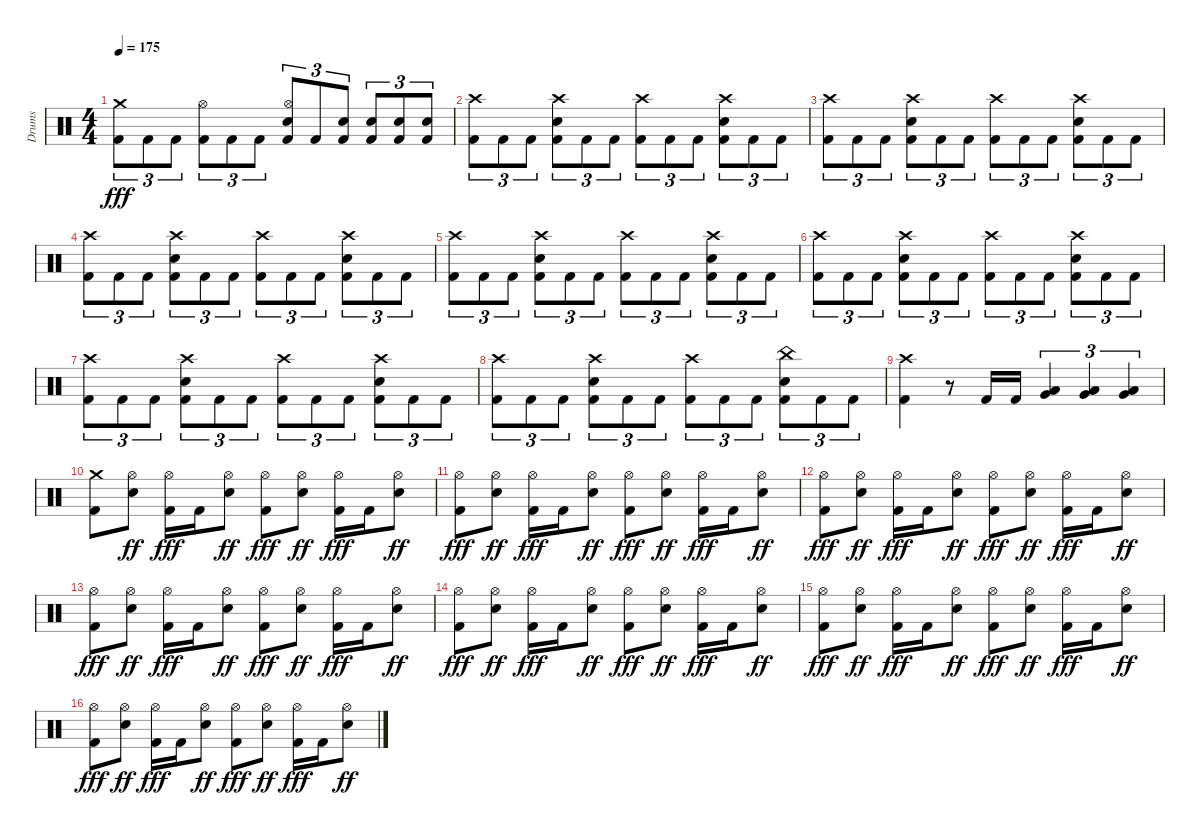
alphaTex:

\track ("Drums" "Drums") {instrument percussion}
\staff {score}
\articulation defaults
\ts (4 4)
\tempo 175
\clef neutral
\ks c
("Crash medium (hit)" "Kick (hit) 2").8{tu (3 2) dy fff} "Kick (hit) 2".8{tu (3 2)} "Kick (hit) 2".8{tu (3 2)} ("Hi-Hat (open)" "Kick (hit) 2").8{tu (3 2)} "Kick (hit) 2".8{tu (3 2)} "Kick (hit) 2".8{tu (3 2)} ("Hi-Hat (open)" "Snare (hit) 2" "Kick (hit) 2").8{tu (3 2)} "Kick (hit) 2".8{tu (3 2)} ("Snare (hit) 2" "Kick (hit) 2").8{tu (3 2)} ("Snare (hit) 2" "Kick (hit) 2").8{tu (3 2)} ("Snare (hit) 2" "Kick (hit) 2").8{tu (3 2)} ("Snare (hit) 2" "Kick (hit) 2").8{tu (3 2)} |
("Crash high (hit)" "Kick (hit) 2").8{tu (3 2)} "Kick (hit) 2".8{tu (3 2)} "Kick (hit) 2".8{tu (3 2)} ("Crash high (hit)" "Snare (hit) 2" "Kick (hit) 2").8{tu (3 2)} "Kick (hit) 2".8{tu (3 2)} "Kick (hit) 2".8{tu (3 2)} ("Crash high (hit)" "Kick (hit) 2").8{tu (3 2)} "Kick (hit) 2".8{tu (3 2)} "Kick (hit) 2".8{tu (3 2)} ("Crash high (hit)" "Snare (hit) 2" "Kick (hit) 2").8{tu (3 2)} "Kick (hit) 2".8{tu (3 2)} "Kick (hit) 2".8{tu (3 2)} |
("Crash high (hit)" "Kick (hit) 2").8{tu (3 2)} "Kick (hit) 2".8{tu (3 2)} "Kick (hit) 2".8{tu (3 2)} ("Crash high (hit)" "Snare (hit) 2" "Kick (hit) 2").8{tu (3 2)} "Kick (hit) 2".8{tu (3 2)} "Kick (hit) 2".8{tu (3 2)} ("Crash high (hit)" "Kick (hit) 2").8{tu (3 2)} "Kick (hit) 2".8{tu (3 2)} "Kick (hit) 2".8{tu (3 2)} ("Crash high (hit)" "Snare (hit) 2" "Kick (hit) 2").8{tu (3 2)} "Kick (hit) 2".8{tu (3 2)} "Kick (hit) 2".8{tu (3 2)} |
("Crash high (hit)" "Kick (hit) 2").8{tu (3 2)} "Kick (hit) 2".8{tu (3 2)} "Kick (hit) 2".8{tu (3 2)} ("Crash high (hit)" "Snare (hit) 2" "Kick (hit) 2").8{tu (3 2)} "Kick (hit) 2".8{tu (3 2)} "Kick (hit) 2".8{tu (3 2)} ("Crash high (hit)" "Kick (hit) 2").8{tu (3 2)} "Kick (hit) 2".8{tu (3 2)} "Kick (hit) 2".8{tu (3 2)} ("Crash high (hit)" "Snare (hit) 2" "Kick (hit) 2").8{tu (3 2)} "Kick (hit) 2".8{tu (3 2)} "Kick (hit) 2".8{tu (3 2)} |
("Crash high (hit)" "Kick (hit) 2").8{tu (3 2)} "Kick (hit) 2".8{tu (3 2)} "Kick (hit) 2".8{tu (3 2)} ("Crash high (hit)" "Snare (hit) 2" "Kick (hit) 2").8{tu (3 2)} "Kick (hit) 2".8{tu (3 2)} "Kick (hit) 2".8{tu (3 2)} ("Crash high (hit)" "Kick (hit) 2").8{tu (3 2)} "Kick (hit) 2".8{tu (3 2)} "Kick (hit) 2".8{tu (3 2)} ("Crash high (hit)" "Snare (hit) 2" "Kick (hit) 2").8{tu (3 2)} "Kick (hit) 2".8{tu (3 2)} "Kick (hit) 2".8{tu (3 2)} |
("Crash high (hit)" "Kick (hit) 2").8{tu (3 2)} "Kick (hit) 2".8{tu (3 2)} "Kick (hit) 2".8{tu (3 2)} ("Crash high (hit)" "Snare (hit) 2" "Kick (hit) 2").8{tu (3 2)} "Kick (hit) 2".8{tu (3 2)} "Kick (hit) 2".8{tu (3 2)} ("Crash high (hit)" "Kick (hit) 2").8{tu (3 2)} "Kick (hit) 2".8{tu (3 2)} "Kick (hit) 2".8{tu (3 2)} ("Crash high (hit)" "Snare (hit) 2" "Kick (hit) 2").8{tu (3 2)} "Kick (hit) 2".8{tu (3 2)} "Kick (hit) 2".8{tu (3 2)} |
("Crash high (hit)" "Kick (hit) 2").8{tu (3 2)} "Kick (hit) 2".8{tu (3 2)} "Kick (hit) 2".8{tu (3 2)} ("Crash high (hit)" "Snare (hit) 2" "Kick (hit) 2").8{tu (3 2)} "Kick (hit) 2".8{tu (3 2)} "Kick (hit) 2".8{tu (3 2)} ("Crash high (hit)" "Kick (hit) 2").8{tu (3 2)} "Kick (hit) 2".8{tu (3 2)} "Kick (hit) 2".8{tu (3 2)} ("Crash high (hit)" "Snare (hit) 2" "Kick (hit) 2").8{tu (3 2)} "Kick (hit) 2".8{tu (3 2)} "Kick (hit) 2".8{tu (3 2)} |
("Crash high (hit)" "Kick (hit) 2").8{tu (3 2)} "Kick (hit) 2".8{tu (3 2)} "Kick (hit) 2".8{tu (3 2)} ("Crash high (hit)" "Snare (hit) 2" "Kick (hit) 2").8{tu (3 2)} "Kick (hit) 2".8{tu (3 2)} "Kick (hit) 2".8{tu (3 2)} ("Crash high (hit)" "Kick (hit) 2").8{tu (3 2)} "Kick (hit) 2".8{tu (3 2)} "Kick (hit) 2".8{tu (3 2)} ("China (hit)" "Snare (hit) 2" "Kick (hit) 2").8{tu (3 2)} "Kick (hit) 2".8{tu (3 2)} "Kick (hit) 2".8{tu (3 2)} |
("Crash high (hit)" "Kick (hit) 2").4 r.8 "Kick (hit) 2".16 "Kick (hit) 2".16 ("Very Low Tom (hit)" "Low Floor Tom (hit)").4{tu (3 2)} ("Very Low Tom (hit)" "Low Floor Tom (hit)").4{tu (3 2)} ("Very Low Tom (hit)" "Low Floor Tom (hit)").4{tu (3 2)} |
("Crash medium (hit)" "Kick (hit) 2").8 ("Hi-Hat (open)" "Snare (hit) 2").8{dy ff} ("Hi-Hat (open)" "Kick (hit) 2").16{dy fff} "Kick (hit) 2".16 ("Hi-Hat (open)" "Snare (hit) 2").8{dy ff} ("Hi-Hat (open)" "Kick (hit) 2").8{dy fff} ("Hi-Hat (open)" "Snare (hit) 2").8{dy ff} ("Hi-Hat (open)" "Kick (hit) 2").16{dy fff} "Kick (hit) 2".16 ("Hi-Hat (open)" "Snare (hit) 2").8{dy ff} |
("Hi-Hat (open)" "Kick (hit) 2").8{dy fff} ("Hi-Hat (open)" "Snare (hit) 2").8{dy ff} ("Hi-Hat (open)" "Kick (hit) 2").16{dy fff} "Kick (hit) 2".16 ("Hi-Hat (open)" "Snare (hit) 2").8{dy ff} ("Hi-Hat (open)" "Kick (hit) 2").8{dy fff} ("Hi-Hat (open)" "Snare (hit) 2").8{dy ff} ("Hi-Hat (open)" "Kick (hit) 2").16{dy fff} "Kick (hit) 2".16 ("Hi-Hat (open)" "Snare (hit) 2").8{dy ff} |
("Hi-Hat (open)" "Kick (hit) 2").8{dy fff} ("Hi-Hat (open)" "Snare (hit) 2").8{dy ff} ("Hi-Hat (open)" "Kick (hit) 2").16{dy fff} "Kick (hit) 2".16 ("Hi-Hat (open)" "Snare (hit) 2").8{dy ff} ("Hi-Hat (open)" "Kick (hit) 2").8{dy fff} ("Hi-Hat (open)" "Snare (hit) 2").8{dy ff} ("Hi-Hat (open)" "Kick (hit) 2").16{dy fff} "Kick (hit) 2".16 ("Hi-Hat (open)" "Snare (hit) 2").8{dy ff} |
("Hi-Hat (open)" "Kick (hit) 2").8{dy fff} ("Hi-Hat (open)" "Snare (hit) 2").8{dy ff} ("Hi-Hat (open)" "Kick (hit) 2").16{dy fff} "Kick (hit) 2".16 ("Hi-Hat (open)" "Snare (hit) 2").8{dy ff} ("Hi-Hat (open)" "Kick (hit) 2").8{dy fff} ("Hi-Hat (open)" "Snare (hit) 2").8{dy ff} ("Hi-Hat (open)" "Kick (hit) 2").16{dy fff} "Kick (hit) 2".16 ("Hi-Hat (open)" "Snare (hit) 2").8{dy ff} |
("Hi-Hat (open)" "Kick (hit) 2").8{dy fff} ("Hi-Hat (open)" "Snare (hit) 2").8{dy ff} ("Hi-Hat (open)" "Kick (hit) 2").16{dy fff} "Kick (hit) 2".16 ("Hi-Hat (open)" "Snare (hit) 2").8{dy ff} ("Hi-Hat (open)" "Kick (hit) 2").8{dy fff} ("Hi-Hat (open)" "Snare (hit) 2").8{dy ff} ("Hi-Hat (open)" "Kick (hit) 2").16{dy fff} "Kick (hit) 2".16 ("Hi-Hat (open)" "Snare (hit) 2").8{dy ff} |
("Hi-Hat (open)" "Kick (hit) 2").8{dy fff} ("Hi-Hat (open)" "Snare (hit) 2").8{dy ff} ("Hi-Hat (open)" "Kick (hit) 2").16{dy fff} "Kick (hit) 2".16 ("Hi-Hat (open)" "Snare (hit) 2").8{dy ff} ("Hi-Hat (open)" "Kick (hit) 2").8{dy fff} ("Hi-Hat (open)" "Snare (hit) 2").8{dy ff} ("Hi-Hat (open)" "Kick (hit) 2").16{dy fff} "Kick (hit) 2".16 ("Hi-Hat (open)" "Snare (hit) 2").8{dy ff} |
("Hi-Hat (open)" "Kick (hit) 2").8{dy fff} ("Hi-Hat (open)" "Snare (hit) 2").8{dy ff} ("Hi-Hat (open)" "Kick (hit) 2").16{dy fff} "Kick (hit) 2".16 ("Hi-Hat (open)" "Snare (hit) 2").8{dy ff} ("Hi-Hat (open)" "Kick (hit) 2").8{dy fff} ("Hi-Hat (open)" "Snare (hit) 2").8{dy ff} ("Hi-Hat (open)" "Kick (hit) 2").16{dy fff} "Kick (hit) 2".16 ("Hi-Hat (open)" "Snare (hit) 2").8{dy ff}
